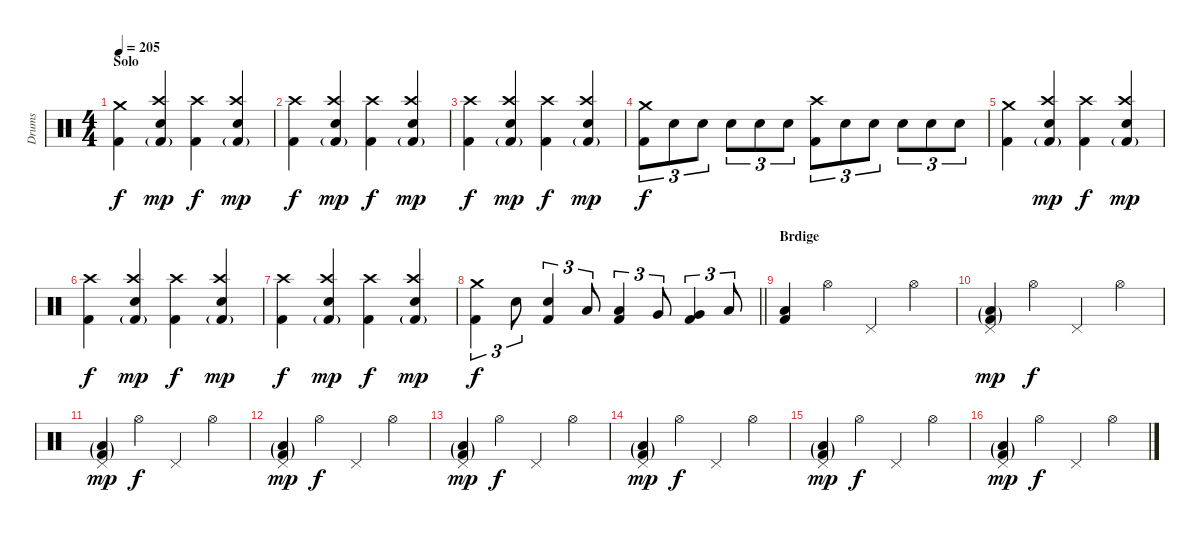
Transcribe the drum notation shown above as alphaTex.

\track ("Drums" "Drums") {instrument percussion}
\staff {score}
\articulation defaults
\ts (4 4)
\section ("" "Solo")
\tempo 205
\clef neutral
\ks c
("Crash medium (hit)" "Kick (hit) 2").4{dy f} ("Crash high (hit)" "Electric Snare (hit)" "Kick (hit) 2"{g}).4{dy mp} ("Crash high (hit)" "Kick (hit) 2").4{dy f} ("Crash high (hit)" "Electric Snare (hit)" "Kick (hit) 2"{g}).4{dy mp} |
("Crash high (hit)" "Kick (hit) 2").4{dy f} ("Crash high (hit)" "Electric Snare (hit)" "Kick (hit) 2"{g}).4{dy mp} ("Crash high (hit)" "Kick (hit) 2").4{dy f} ("Crash high (hit)" "Electric Snare (hit)" "Kick (hit) 2"{g}).4{dy mp} |
("Crash high (hit)" "Kick (hit) 2").4{dy f} ("Crash high (hit)" "Electric Snare (hit)" "Kick (hit) 2"{g}).4{dy mp} ("Crash high (hit)" "Kick (hit) 2").4{dy f} ("Crash high (hit)" "Electric Snare (hit)" "Kick (hit) 2"{g}).4{dy mp} |
("Crash medium (hit)" "Kick (hit) 2").8{tu (3 2) dy f} "Electric Snare (hit)".8{tu (3 2)} "Electric Snare (hit)".8{tu (3 2)} "Electric Snare (hit)".8{tu (3 2)} "Electric Snare (hit)".8{tu (3 2)} "Electric Snare (hit)".8{tu (3 2)} ("Crash high (hit)" "Kick (hit) 2").8{tu (3 2)} "Electric Snare (hit)".8{tu (3 2)} "Electric Snare (hit)".8{tu (3 2)} "Electric Snare (hit)".8{tu (3 2)} "Electric Snare (hit)".8{tu (3 2)} "Electric Snare (hit)".8{tu (3 2)} |
("Crash medium (hit)" "Kick (hit) 2").4 ("Crash high (hit)" "Electric Snare (hit)" "Kick (hit) 2"{g}).4{dy mp} ("Crash high (hit)" "Kick (hit) 2").4{dy f} ("Crash high (hit)" "Electric Snare (hit)" "Kick (hit) 2"{g}).4{dy mp} |
("Crash high (hit)" "Kick (hit) 2").4{dy f} ("Crash high (hit)" "Electric Snare (hit)" "Kick (hit) 2"{g}).4{dy mp} ("Crash high (hit)" "Kick (hit) 2").4{dy f} ("Crash high (hit)" "Electric Snare (hit)" "Kick (hit) 2"{g}).4{dy mp} |
("Crash high (hit)" "Kick (hit) 2").4{dy f} ("Crash high (hit)" "Electric Snare (hit)" "Kick (hit) 2"{g}).4{dy mp} ("Crash high (hit)" "Kick (hit) 2").4{dy f} ("Crash high (hit)" "Electric Snare (hit)" "Kick (hit) 2"{g}).4{dy mp} |
\barLineRight lightlight
("Crash medium (hit)" "Kick (hit) 2").4{tu (3 2) dy f} "Electric Snare (hit)".8{tu (3 2)} ("Electric Snare (hit)" "Kick (hit) 2").4{tu (3 2)} "Low Tom (hit)".8{tu (3 2)} ("Low Tom (hit)" "Kick (hit) 2").4{tu (3 2)} "Very Low Tom (hit)".8{tu (3 2)} ("Very Low Tom (hit)" "Kick (hit) 2").4{tu (3 2)} "Low Floor Tom (hit)".8{tu (3 2)} |
\section ("" "Brdige")
("Low Floor Tom (hit)" "Kick (hit) 2").4 "Hi-Hat (open)".4 "Pedal Hi-Hat (hit)".4 "Hi-Hat (open)".4 |
("Pedal Hi-Hat (hit)" "Low Floor Tom (hit)"{g} "Kick (hit) 2"{g}).4{dy mp} "Hi-Hat (open)".4{dy f} "Pedal Hi-Hat (hit)".4 "Hi-Hat (open)".4 |
("Pedal Hi-Hat (hit)" "Low Floor Tom (hit)"{g} "Kick (hit) 2"{g}).4{dy mp} "Hi-Hat (open)".4{dy f} "Pedal Hi-Hat (hit)".4 "Hi-Hat (open)".4 |
("Pedal Hi-Hat (hit)" "Low Floor Tom (hit)"{g} "Kick (hit) 2"{g}).4{dy mp} "Hi-Hat (open)".4{dy f} "Pedal Hi-Hat (hit)".4 "Hi-Hat (open)".4 |
("Pedal Hi-Hat (hit)" "Low Floor Tom (hit)"{g} "Kick (hit) 2"{g}).4{dy mp} "Hi-Hat (open)".4{dy f} "Pedal Hi-Hat (hit)".4 "Hi-Hat (open)".4 |
("Pedal Hi-Hat (hit)" "Low Floor Tom (hit)"{g} "Kick (hit) 2"{g}).4{dy mp} "Hi-Hat (open)".4{dy f} "Pedal Hi-Hat (hit)".4 "Hi-Hat (open)".4 |
("Pedal Hi-Hat (hit)" "Low Floor Tom (hit)"{g} "Kick (hit) 2"{g}).4{dy mp} "Hi-Hat (open)".4{dy f} "Pedal Hi-Hat (hit)".4 "Hi-Hat (open)".4 |
("Pedal Hi-Hat (hit)" "Low Floor Tom (hit)"{g} "Kick (hit) 2"{g}).4{dy mp} "Hi-Hat (open)".4{dy f} "Pedal Hi-Hat (hit)".4 "Hi-Hat (open)".4
